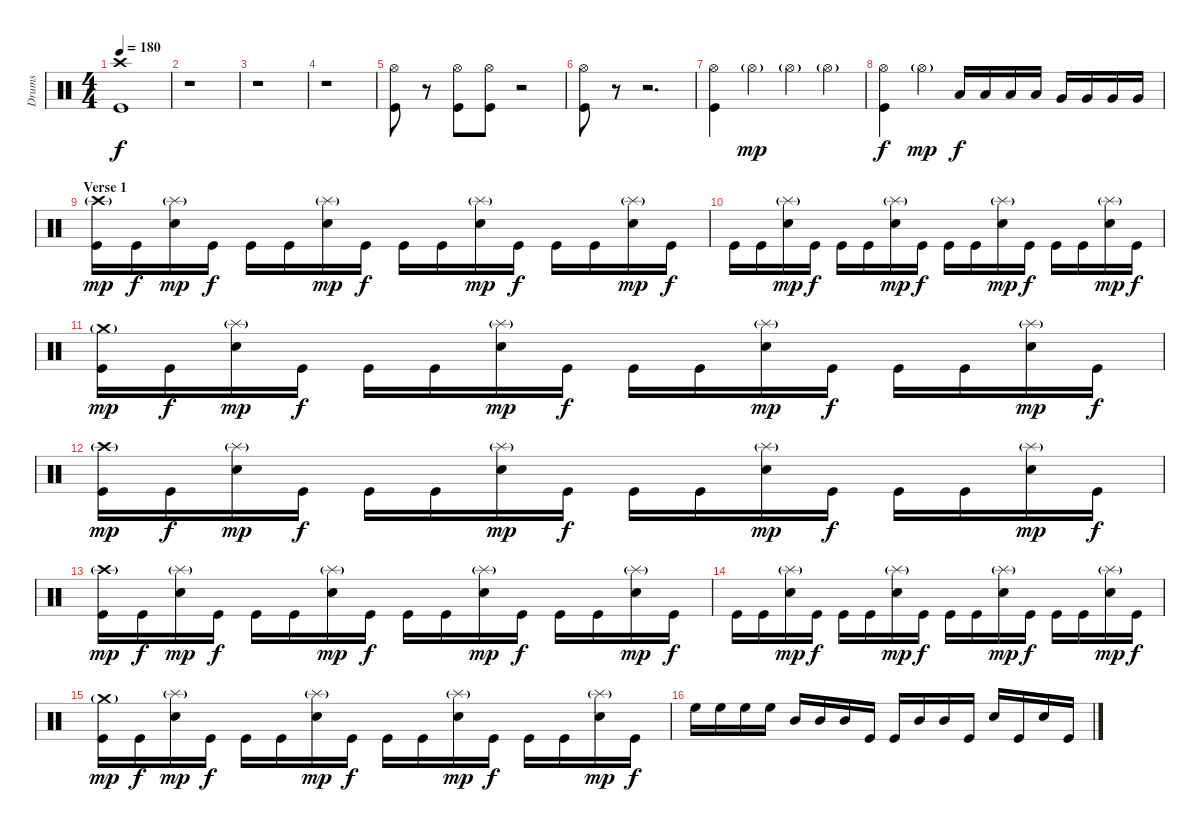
\track ("Drums" "Drums") {instrument percussion}
\staff {score}
\articulation defaults
\ts (4 4)
\tempo 180
\clef neutral
\ks c
("Crash high (hit)" "Kick (hit)").1{dy f} |
r.1 |
r.1 |
r.1 |
("Hi-Hat (open)" "Kick (hit)").8 r.8 ("Hi-Hat (open)" "Kick (hit)").8 ("Hi-Hat (open)" "Kick (hit)").8 r.2 |
("Hi-Hat (open)" "Kick (hit)").8 r.8 r.2{d} |
("Hi-Hat (open)" "Kick (hit)").4 "Hi-Hat (open)"{g}.4{dy mp} "Hi-Hat (open)"{g}.4 "Hi-Hat (open)"{g}.4 |
("Hi-Hat (open)" "Kick (hit)").4{dy f} "Hi-Hat (open)"{g}.4{dy mp} "Low Tom (hit)".16{dy f} "Low Tom (hit)".16 "Low Tom (hit)".16 "Low Tom (hit)".16 "Very Low Tom (hit)".16 "Very Low Tom (hit)".16 "Very Low Tom (hit)".16 "Very Low Tom (hit)".16 |
\section ("" "Verse 1")
("Crash high (hit)"{g} "Kick (hit)").16{dy mp} "Kick (hit)".16{dy f} ("Splash (hit)"{g} "Snare (hit) 2").16{dy mp} "Kick (hit)".16{dy f} "Kick (hit)".16 "Kick (hit)".16 ("Splash (hit)"{g} "Snare (hit) 2").16{dy mp} "Kick (hit)".16{dy f} "Kick (hit)".16 "Kick (hit)".16 ("Splash (hit)"{g} "Snare (hit) 2").16{dy mp} "Kick (hit)".16{dy f} "Kick (hit)".16 "Kick (hit)".16 ("Splash (hit)"{g} "Snare (hit) 2").16{dy mp} "Kick (hit)".16{dy f} |
"Kick (hit)".16 "Kick (hit)".16 ("Splash (hit)"{g} "Snare (hit) 2").16{dy mp} "Kick (hit)".16{dy f} "Kick (hit)".16 "Kick (hit)".16 ("Splash (hit)"{g} "Snare (hit) 2").16{dy mp} "Kick (hit)".16{dy f} "Kick (hit)".16 "Kick (hit)".16 ("Splash (hit)"{g} "Snare (hit) 2").16{dy mp} "Kick (hit)".16{dy f} "Kick (hit)".16 "Kick (hit)".16 ("Splash (hit)"{g} "Snare (hit) 2").16{dy mp} "Kick (hit)".16{dy f} |
("Crash medium (hit)"{g} "Kick (hit)").16{dy mp} "Kick (hit)".16{dy f} ("Splash (hit)"{g} "Snare (hit) 2").16{dy mp} "Kick (hit)".16{dy f} "Kick (hit)".16 "Kick (hit)".16 ("Splash (hit)"{g} "Snare (hit) 2").16{dy mp} "Kick (hit)".16{dy f} "Kick (hit)".16 "Kick (hit)".16 ("Splash (hit)"{g} "Snare (hit) 2").16{dy mp} "Kick (hit)".16{dy f} "Kick (hit)".16 "Kick (hit)".16 ("Splash (hit)"{g} "Snare (hit) 2").16{dy mp} "Kick (hit)".16{dy f} |
("Crash high (hit)"{g} "Kick (hit)").16{dy mp} "Kick (hit)".16{dy f} ("Splash (hit)"{g} "Snare (hit) 2").16{dy mp} "Kick (hit)".16{dy f} "Kick (hit)".16 "Kick (hit)".16 ("Splash (hit)"{g} "Snare (hit) 2").16{dy mp} "Kick (hit)".16{dy f} "Kick (hit)".16 "Kick (hit)".16 ("Splash (hit)"{g} "Snare (hit) 2").16{dy mp} "Kick (hit)".16{dy f} "Kick (hit)".16 "Kick (hit)".16 ("Splash (hit)"{g} "Snare (hit) 2").16{dy mp} "Kick (hit)".16{dy f} |
("Crash high (hit)"{g} "Kick (hit)").16{dy mp} "Kick (hit)".16{dy f} ("Splash (hit)"{g} "Snare (hit) 2").16{dy mp} "Kick (hit)".16{dy f} "Kick (hit)".16 "Kick (hit)".16 ("Splash (hit)"{g} "Snare (hit) 2").16{dy mp} "Kick (hit)".16{dy f} "Kick (hit)".16 "Kick (hit)".16 ("Splash (hit)"{g} "Snare (hit) 2").16{dy mp} "Kick (hit)".16{dy f} "Kick (hit)".16 "Kick (hit)".16 ("Splash (hit)"{g} "Snare (hit) 2").16{dy mp} "Kick (hit)".16{dy f} |
"Kick (hit)".16 "Kick (hit)".16 ("Splash (hit)"{g} "Snare (hit) 2").16{dy mp} "Kick (hit)".16{dy f} "Kick (hit)".16 "Kick (hit)".16 ("Splash (hit)"{g} "Snare (hit) 2").16{dy mp} "Kick (hit)".16{dy f} "Kick (hit)".16 "Kick (hit)".16 ("Splash (hit)"{g} "Snare (hit) 2").16{dy mp} "Kick (hit)".16{dy f} "Kick (hit)".16 "Kick (hit)".16 ("Splash (hit)"{g} "Snare (hit) 2").16{dy mp} "Kick (hit)".16{dy f} |
("Crash medium (hit)"{g} "Kick (hit)").16{dy mp} "Kick (hit)".16{dy f} ("Splash (hit)"{g} "Snare (hit) 2").16{dy mp} "Kick (hit)".16{dy f} "Kick (hit)".16 "Kick (hit)".16 ("Splash (hit)"{g} "Snare (hit) 2").16{dy mp} "Kick (hit)".16{dy f} "Kick (hit)".16 "Kick (hit)".16 ("Splash (hit)"{g} "Snare (hit) 2").16{dy mp} "Kick (hit)".16{dy f} "Kick (hit)".16 "Kick (hit)".16 ("Splash (hit)"{g} "Snare (hit) 2").16{dy mp} "Kick (hit)".16{dy f} |
"High Floor Tom (hit)".16 "High Floor Tom (hit)".16 "High Floor Tom (hit)".16 "High Floor Tom (hit)".16 "Mid Tom (hit)".16 "Mid Tom (hit)".16 "Mid Tom (hit)".16 "Kick (hit)".16 "Kick (hit)".16 "Mid Tom (hit)".16 "Mid Tom (hit)".16 "Kick (hit)".16 "Snare (hit) 2".16 "Kick (hit)".16 "Snare (hit) 2".16 "Kick (hit)".16
